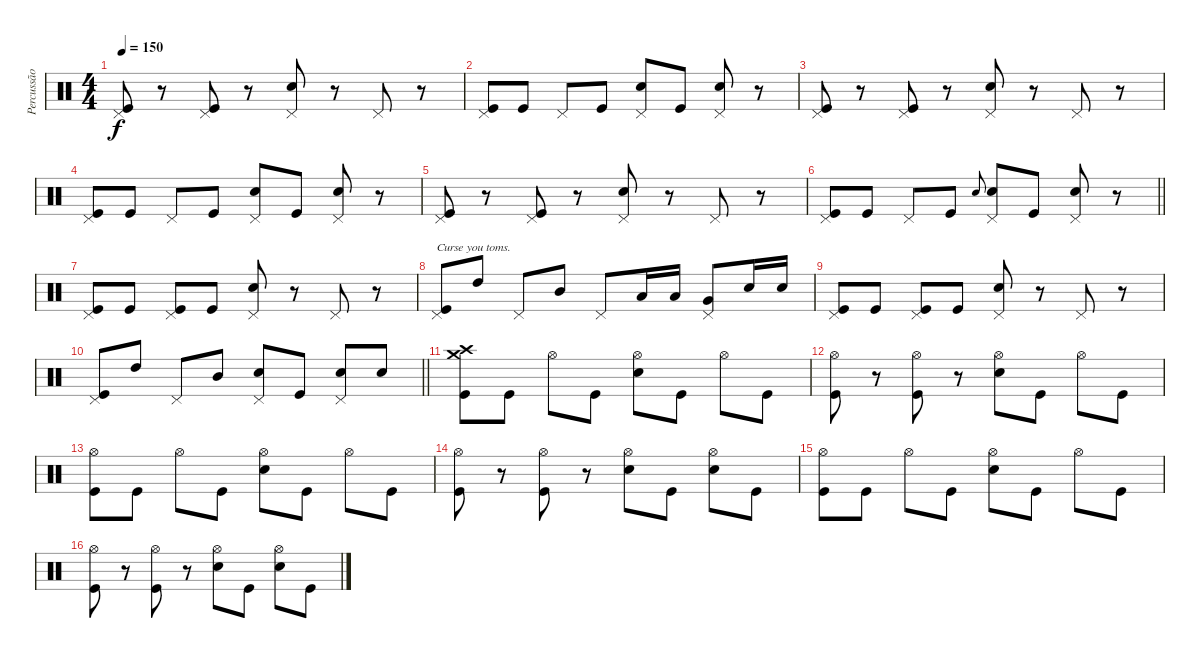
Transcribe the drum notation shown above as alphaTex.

\track ("Percussão" "Percussão") {instrument percussion}
\staff {score}
\articulation defaults
\ts (4 4)
\tempo 150
\clef neutral
\ks c
("Pedal Hi-Hat (hit)" "Kick (hit)").8{dy f} r.8 ("Pedal Hi-Hat (hit)" "Kick (hit)").8 r.8 ("Pedal Hi-Hat (hit)" "Snare (hit) 2").8 r.8 "Pedal Hi-Hat (hit)".8 r.8 |
("Pedal Hi-Hat (hit)" "Kick (hit)").8 "Kick (hit)".8 "Pedal Hi-Hat (hit)".8 "Kick (hit)".8 ("Pedal Hi-Hat (hit)" "Snare (hit) 2").8 "Kick (hit)".8 ("Pedal Hi-Hat (hit)" "Snare (hit) 2").8 r.8 |
("Pedal Hi-Hat (hit)" "Kick (hit)").8 r.8 ("Pedal Hi-Hat (hit)" "Kick (hit)").8 r.8 ("Pedal Hi-Hat (hit)" "Snare (hit) 2").8 r.8 "Pedal Hi-Hat (hit)".8 r.8 |
("Pedal Hi-Hat (hit)" "Kick (hit)").8 "Kick (hit)".8 "Pedal Hi-Hat (hit)".8 "Kick (hit)".8 ("Pedal Hi-Hat (hit)" "Snare (hit) 2").8 "Kick (hit)".8 ("Pedal Hi-Hat (hit)" "Snare (hit) 2").8 r.8 |
("Pedal Hi-Hat (hit)" "Kick (hit)").8 r.8 ("Pedal Hi-Hat (hit)" "Kick (hit)").8 r.8 ("Pedal Hi-Hat (hit)" "Snare (hit) 2").8 r.8 "Pedal Hi-Hat (hit)".8 r.8 |
\barLineRight lightlight
("Pedal Hi-Hat (hit)" "Kick (hit)").8 "Kick (hit)".8 "Pedal Hi-Hat (hit)".8 "Kick (hit)".8 "Snare (hit) 2".8{gr onbeat} ("Pedal Hi-Hat (hit)" "Snare (hit) 2").8 "Kick (hit)".8 ("Pedal Hi-Hat (hit)" "Snare (hit) 2").8 r.8 |
("Pedal Hi-Hat (hit)" "Kick (hit)").8 "Kick (hit)".8 ("Pedal Hi-Hat (hit)" "Kick (hit)").8 "Kick (hit)".8 ("Pedal Hi-Hat (hit)" "Snare (hit) 2").8 r.8 "Pedal Hi-Hat (hit)".8 r.8 |
("Pedal Hi-Hat (hit)" "Kick (hit)").8{txt "Curse you toms."} "High Tom (hit)".8 "Pedal Hi-Hat (hit)".8 "Mid Tom (hit)".8 "Pedal Hi-Hat (hit)".8 "Low Tom (hit)".16 "Low Tom (hit)".16 ("Pedal Hi-Hat (hit)" "Very Low Tom (hit)").8 "Snare (hit) 2".16 "Snare (hit) 2".16 |
("Pedal Hi-Hat (hit)" "Kick (hit)").8 "Kick (hit)".8 ("Pedal Hi-Hat (hit)" "Kick (hit)").8 "Kick (hit)".8 ("Pedal Hi-Hat (hit)" "Snare (hit) 2").8 r.8 "Pedal Hi-Hat (hit)".8 r.8 |
\barLineRight lightlight
("Pedal Hi-Hat (hit)" "Kick (hit)").8 "High Tom (hit)".8 "Pedal Hi-Hat (hit)".8 "Mid Tom (hit)".8 ("Pedal Hi-Hat (hit)" "Snare (hit) 2").8 "Kick (hit)".8 ("Pedal Hi-Hat (hit)" "Snare (hit) 2").8 "Snare (hit) 2".8 |
("Crash high (hit)" "Crash medium (hit)" "Kick (hit)").8 "Kick (hit)".8 "Hi-Hat (open)".8 "Kick (hit)".8 ("Hi-Hat (open)" "Snare (hit) 2").8 "Kick (hit)".8 "Hi-Hat (open)".8 "Kick (hit)".8 |
("Hi-Hat (open)" "Kick (hit)").8 r.8 ("Hi-Hat (open)" "Kick (hit)").8 r.8 ("Hi-Hat (open)" "Snare (hit) 2").8 "Kick (hit)".8 "Hi-Hat (open)".8 "Kick (hit)".8 |
("Hi-Hat (open)" "Kick (hit)").8 "Kick (hit)".8 "Hi-Hat (open)".8 "Kick (hit)".8 ("Hi-Hat (open)" "Snare (hit) 2").8 "Kick (hit)".8 "Hi-Hat (open)".8 "Kick (hit)".8 |
("Hi-Hat (open)" "Kick (hit)").8 r.8 ("Hi-Hat (open)" "Kick (hit)").8 r.8 ("Hi-Hat (open)" "Snare (hit) 2").8 "Kick (hit)".8 ("Hi-Hat (open)" "Snare (hit) 2").8 "Kick (hit)".8 |
("Hi-Hat (open)" "Kick (hit)").8 "Kick (hit)".8 "Hi-Hat (open)".8 "Kick (hit)".8 ("Hi-Hat (open)" "Snare (hit) 2").8 "Kick (hit)".8 "Hi-Hat (open)".8 "Kick (hit)".8 |
("Hi-Hat (open)" "Kick (hit)").8 r.8 ("Hi-Hat (open)" "Kick (hit)").8 r.8 ("Hi-Hat (open)" "Snare (hit) 2").8 "Kick (hit)".8 ("Hi-Hat (open)" "Snare (hit) 2").8 "Kick (hit)".8
